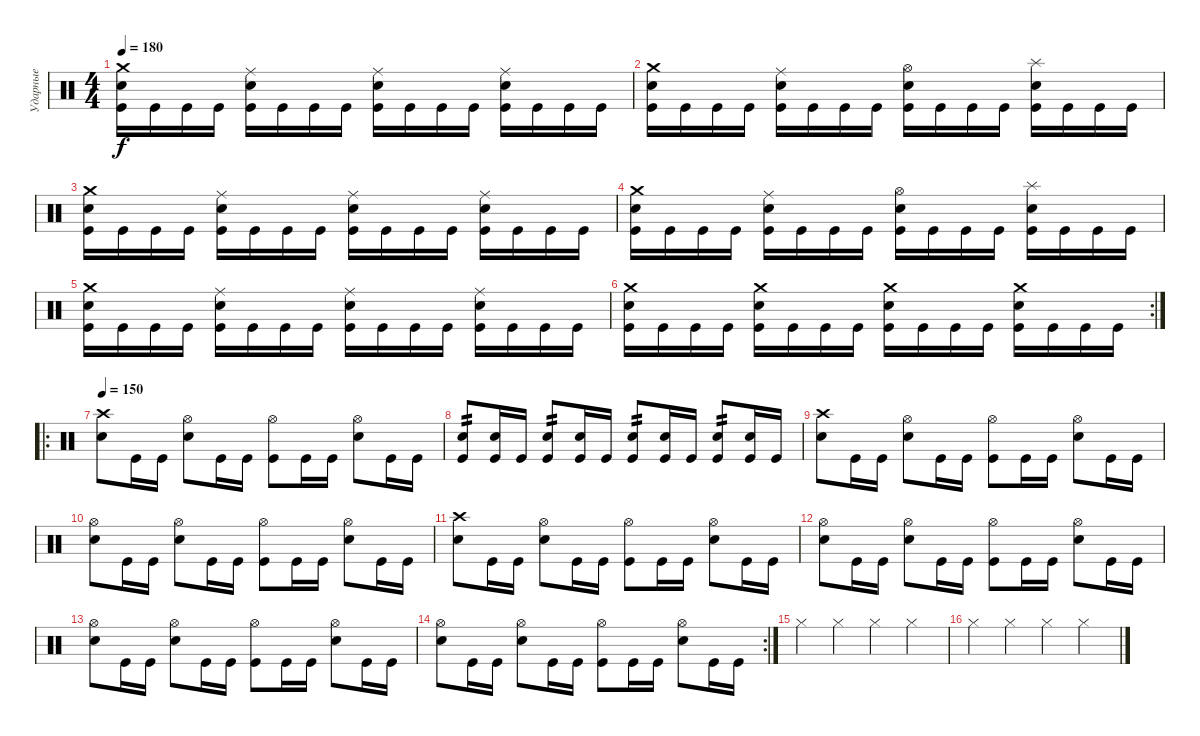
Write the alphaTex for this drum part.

\track ("Ударные" "Ударные") {instrument percussion}
\staff {score}
\articulation defaults
\ts (4 4)
\tempo 180
\clef neutral
\ks c
("Crash medium (hit)" "Electric Snare (hit)" "Kick (hit)").16{dy f} "Kick (hit)".16 "Kick (hit)".16 "Kick (hit)".16 ("Ride (middle)" "Electric Snare (hit)" "Kick (hit)").16 "Kick (hit)".16 "Kick (hit)".16 "Kick (hit)".16 ("Ride (middle)" "Electric Snare (hit)" "Kick (hit)").16 "Kick (hit)".16 "Kick (hit)".16 "Kick (hit)".16 ("Ride (middle)" "Electric Snare (hit)" "Kick (hit)").16 "Kick (hit)".16 "Kick (hit)".16 "Kick (hit)".16 |
("Crash medium (hit)" "Electric Snare (hit)" "Kick (hit)").16 "Kick (hit)".16 "Kick (hit)".16 "Kick (hit)".16 ("Ride (middle)" "Electric Snare (hit)" "Kick (hit)").16 "Kick (hit)".16 "Kick (hit)".16 "Kick (hit)".16 ("Hi-Hat (open)" "Electric Snare (hit)" "Kick (hit)").16 "Kick (hit)".16 "Kick (hit)".16 "Kick (hit)".16 ("Splash (hit)" "Electric Snare (hit)" "Kick (hit)").16 "Kick (hit)".16 "Kick (hit)".16 "Kick (hit)".16 |
("Crash medium (hit)" "Electric Snare (hit)" "Kick (hit)").16 "Kick (hit)".16 "Kick (hit)".16 "Kick (hit)".16 ("Ride (middle)" "Electric Snare (hit)" "Kick (hit)").16 "Kick (hit)".16 "Kick (hit)".16 "Kick (hit)".16 ("Ride (middle)" "Electric Snare (hit)" "Kick (hit)").16 "Kick (hit)".16 "Kick (hit)".16 "Kick (hit)".16 ("Ride (middle)" "Electric Snare (hit)" "Kick (hit)").16 "Kick (hit)".16 "Kick (hit)".16 "Kick (hit)".16 |
("Crash medium (hit)" "Electric Snare (hit)" "Kick (hit)").16 "Kick (hit)".16 "Kick (hit)".16 "Kick (hit)".16 ("Ride (middle)" "Electric Snare (hit)" "Kick (hit)").16 "Kick (hit)".16 "Kick (hit)".16 "Kick (hit)".16 ("Hi-Hat (open)" "Electric Snare (hit)" "Kick (hit)").16 "Kick (hit)".16 "Kick (hit)".16 "Kick (hit)".16 ("Splash (hit)" "Electric Snare (hit)" "Kick (hit)").16 "Kick (hit)".16 "Kick (hit)".16 "Kick (hit)".16 |
("Crash medium (hit)" "Electric Snare (hit)" "Kick (hit)").16 "Kick (hit)".16 "Kick (hit)".16 "Kick (hit)".16 ("Ride (middle)" "Electric Snare (hit)" "Kick (hit)").16 "Kick (hit)".16 "Kick (hit)".16 "Kick (hit)".16 ("Ride (middle)" "Electric Snare (hit)" "Kick (hit)").16 "Kick (hit)".16 "Kick (hit)".16 "Kick (hit)".16 ("Ride (middle)" "Electric Snare (hit)" "Kick (hit)").16 "Kick (hit)".16 "Kick (hit)".16 "Kick (hit)".16 |
\rc 2
("Crash medium (hit)" "Electric Snare (hit)" "Kick (hit)").16 "Kick (hit)".16 "Kick (hit)".16 "Kick (hit)".16 ("Crash medium (hit)" "Electric Snare (hit)" "Kick (hit)").16 "Kick (hit)".16 "Kick (hit)".16 "Kick (hit)".16 ("Crash medium (hit)" "Electric Snare (hit)" "Kick (hit)").16 "Kick (hit)".16 "Kick (hit)".16 "Kick (hit)".16 ("Crash medium (hit)" "Electric Snare (hit)" "Kick (hit)").16 "Kick (hit)".16 "Kick (hit)".16 "Kick (hit)".16 |
\ro
\tempo 150
("Crash high (hit)" "Electric Snare (hit)").8 "Kick (hit)".16 "Kick (hit)".16 ("Hi-Hat (open)" "Electric Snare (hit)").8 "Kick (hit)".16 "Kick (hit)".16 ("Hi-Hat (open)" "Kick (hit)").8 "Kick (hit)".16 "Kick (hit)".16 ("Hi-Hat (open)" "Electric Snare (hit)").8 "Kick (hit)".16 "Kick (hit)".16 |
("Electric Snare (hit)" "Kick (hit)").8{tp 2} ("Electric Snare (hit)" "Kick (hit)").16 "Kick (hit)".16 ("Electric Snare (hit)" "Kick (hit)").8{tp 2} ("Electric Snare (hit)" "Kick (hit)").16 "Kick (hit)".16 ("Electric Snare (hit)" "Kick (hit)").8{tp 2} ("Electric Snare (hit)" "Kick (hit)").16 "Kick (hit)".16 ("Electric Snare (hit)" "Kick (hit)").8{tp 2} ("Electric Snare (hit)" "Kick (hit)").16 "Kick (hit)".16 |
("Crash high (hit)" "Electric Snare (hit)").8 "Kick (hit)".16 "Kick (hit)".16 ("Hi-Hat (open)" "Electric Snare (hit)").8 "Kick (hit)".16 "Kick (hit)".16 ("Hi-Hat (open)" "Kick (hit)").8 "Kick (hit)".16 "Kick (hit)".16 ("Hi-Hat (open)" "Electric Snare (hit)").8 "Kick (hit)".16 "Kick (hit)".16 |
("Hi-Hat (open)" "Electric Snare (hit)").8 "Kick (hit)".16 "Kick (hit)".16 ("Hi-Hat (open)" "Electric Snare (hit)").8 "Kick (hit)".16 "Kick (hit)".16 ("Hi-Hat (open)" "Kick (hit)").8 "Kick (hit)".16 "Kick (hit)".16 ("Hi-Hat (open)" "Electric Snare (hit)").8 "Kick (hit)".16 "Kick (hit)".16 |
("Crash high (hit)" "Electric Snare (hit)").8 "Kick (hit)".16 "Kick (hit)".16 ("Hi-Hat (open)" "Electric Snare (hit)").8 "Kick (hit)".16 "Kick (hit)".16 ("Hi-Hat (open)" "Kick (hit)").8 "Kick (hit)".16 "Kick (hit)".16 ("Hi-Hat (open)" "Electric Snare (hit)").8 "Kick (hit)".16 "Kick (hit)".16 |
("Hi-Hat (open)" "Electric Snare (hit)").8 "Kick (hit)".16 "Kick (hit)".16 ("Hi-Hat (open)" "Electric Snare (hit)").8 "Kick (hit)".16 "Kick (hit)".16 ("Hi-Hat (open)" "Kick (hit)").8 "Kick (hit)".16 "Kick (hit)".16 ("Hi-Hat (open)" "Electric Snare (hit)").8 "Kick (hit)".16 "Kick (hit)".16 |
("Hi-Hat (open)" "Electric Snare (hit)").8 "Kick (hit)".16 "Kick (hit)".16 ("Hi-Hat (open)" "Electric Snare (hit)").8 "Kick (hit)".16 "Kick (hit)".16 ("Hi-Hat (open)" "Kick (hit)").8 "Kick (hit)".16 "Kick (hit)".16 ("Hi-Hat (open)" "Electric Snare (hit)").8 "Kick (hit)".16 "Kick (hit)".16 |
\rc 2
("Hi-Hat (open)" "Electric Snare (hit)").8 "Kick (hit)".16 "Kick (hit)".16 ("Hi-Hat (open)" "Electric Snare (hit)").8 "Kick (hit)".16 "Kick (hit)".16 ("Hi-Hat (open)" "Kick (hit)").8 "Kick (hit)".16 "Kick (hit)".16 ("Hi-Hat (open)" "Electric Snare (hit)").8 "Kick (hit)".16 "Kick (hit)".16 |
"Hi-Hat (closed)".4 "Hi-Hat (closed)".4 "Hi-Hat (closed)".4 "Hi-Hat (closed)".4 |
"Hi-Hat (closed)".4 "Hi-Hat (closed)".4 "Hi-Hat (closed)".4 "Hi-Hat (closed)".4
